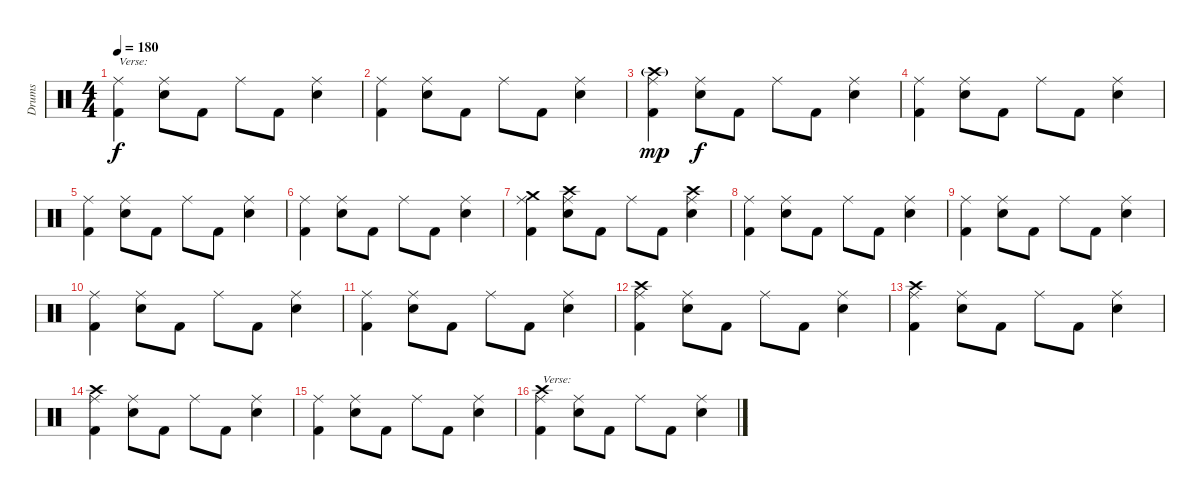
\track ("Drums" "Drums") {instrument percussion}
\staff {score}
\articulation defaults
\ts (4 4)
\tempo 180
\clef neutral
\ks c
("Ride (middle)" "Kick (hit) 2").4{txt "Verse:" dy f} ("Ride (middle)" "Electric Snare (hit)").8 "Kick (hit) 2".8 "Ride (middle)".8 "Kick (hit) 2".8 ("Ride (middle)" "Electric Snare (hit)").4 |
("Ride (middle)" "Kick (hit) 2").4 ("Ride (middle)" "Electric Snare (hit)").8 "Kick (hit) 2".8 "Ride (middle)".8 "Kick (hit) 2".8 ("Ride (middle)" "Electric Snare (hit)").4 |
("Ride (middle)" "Crash high (hit)"{g} "Kick (hit) 2").4{dy mp} ("Ride (middle)" "Electric Snare (hit)").8{dy f} "Kick (hit) 2".8 "Ride (middle)".8 "Kick (hit) 2".8 ("Ride (middle)" "Electric Snare (hit)").4 |
("Ride (middle)" "Kick (hit) 2").4 ("Ride (middle)" "Electric Snare (hit)").8 "Kick (hit) 2".8 "Ride (middle)".8 "Kick (hit) 2".8 ("Ride (middle)" "Electric Snare (hit)").4 |
("Ride (middle)" "Kick (hit) 2").4 ("Ride (middle)" "Electric Snare (hit)").8 "Kick (hit) 2".8 "Ride (middle)".8 "Kick (hit) 2".8 ("Ride (middle)" "Electric Snare (hit)").4 |
("Ride (middle)" "Kick (hit) 2").4 ("Ride (middle)" "Electric Snare (hit)").8 "Kick (hit) 2".8 "Ride (middle)".8 "Kick (hit) 2".8 ("Ride (middle)" "Electric Snare (hit)").4 |
("Ride (middle)" "Crash medium (hit)" "Kick (hit) 2").4 ("Ride (middle)" "Crash high (hit)" "Electric Snare (hit)").8 "Kick (hit) 2".8 "Ride (middle)".8 "Kick (hit) 2".8 ("Ride (middle)" "Crash high (hit)" "Electric Snare (hit)").4 |
("Ride (middle)" "Kick (hit) 2").4 ("Ride (middle)" "Electric Snare (hit)").8 "Kick (hit) 2".8 "Ride (middle)".8 "Kick (hit) 2".8 ("Ride (middle)" "Electric Snare (hit)").4 |
("Ride (middle)" "Kick (hit) 2").4 ("Ride (middle)" "Electric Snare (hit)").8 "Kick (hit) 2".8 "Ride (middle)".8 "Kick (hit) 2".8 ("Ride (middle)" "Electric Snare (hit)").4 |
("Ride (middle)" "Kick (hit) 2").4 ("Ride (middle)" "Electric Snare (hit)").8 "Kick (hit) 2".8 "Ride (middle)".8 "Kick (hit) 2".8 ("Ride (middle)" "Electric Snare (hit)").4 |
("Ride (middle)" "Kick (hit) 2").4 ("Ride (middle)" "Electric Snare (hit)").8 "Kick (hit) 2".8 "Ride (middle)".8 "Kick (hit) 2".8 ("Ride (middle)" "Electric Snare (hit)").4 |
("Ride (middle)" "Crash high (hit)" "Kick (hit) 2").4 ("Ride (middle)" "Electric Snare (hit)").8 "Kick (hit) 2".8 "Ride (middle)".8 "Kick (hit) 2".8 ("Ride (middle)" "Electric Snare (hit)").4 |
("Ride (middle)" "Crash high (hit)" "Kick (hit) 2").4 ("Ride (middle)" "Electric Snare (hit)").8 "Kick (hit) 2".8 "Ride (middle)".8 "Kick (hit) 2".8 ("Ride (middle)" "Electric Snare (hit)").4 |
("Ride (middle)" "Crash high (hit)" "Kick (hit) 2").4 ("Ride (middle)" "Electric Snare (hit)").8 "Kick (hit) 2".8 "Ride (middle)".8 "Kick (hit) 2".8 ("Ride (middle)" "Electric Snare (hit)").4 |
("Ride (middle)" "Kick (hit) 2").4 ("Ride (middle)" "Electric Snare (hit)").8 "Kick (hit) 2".8 "Ride (middle)".8 "Kick (hit) 2".8 ("Ride (middle)" "Electric Snare (hit)").4 |
("Ride (middle)" "Crash high (hit)" "Kick (hit) 2").4{txt "Verse:"} ("Ride (middle)" "Electric Snare (hit)").8 "Kick (hit) 2".8 "Ride (middle)".8 "Kick (hit) 2".8 ("Ride (middle)" "Electric Snare (hit)").4
